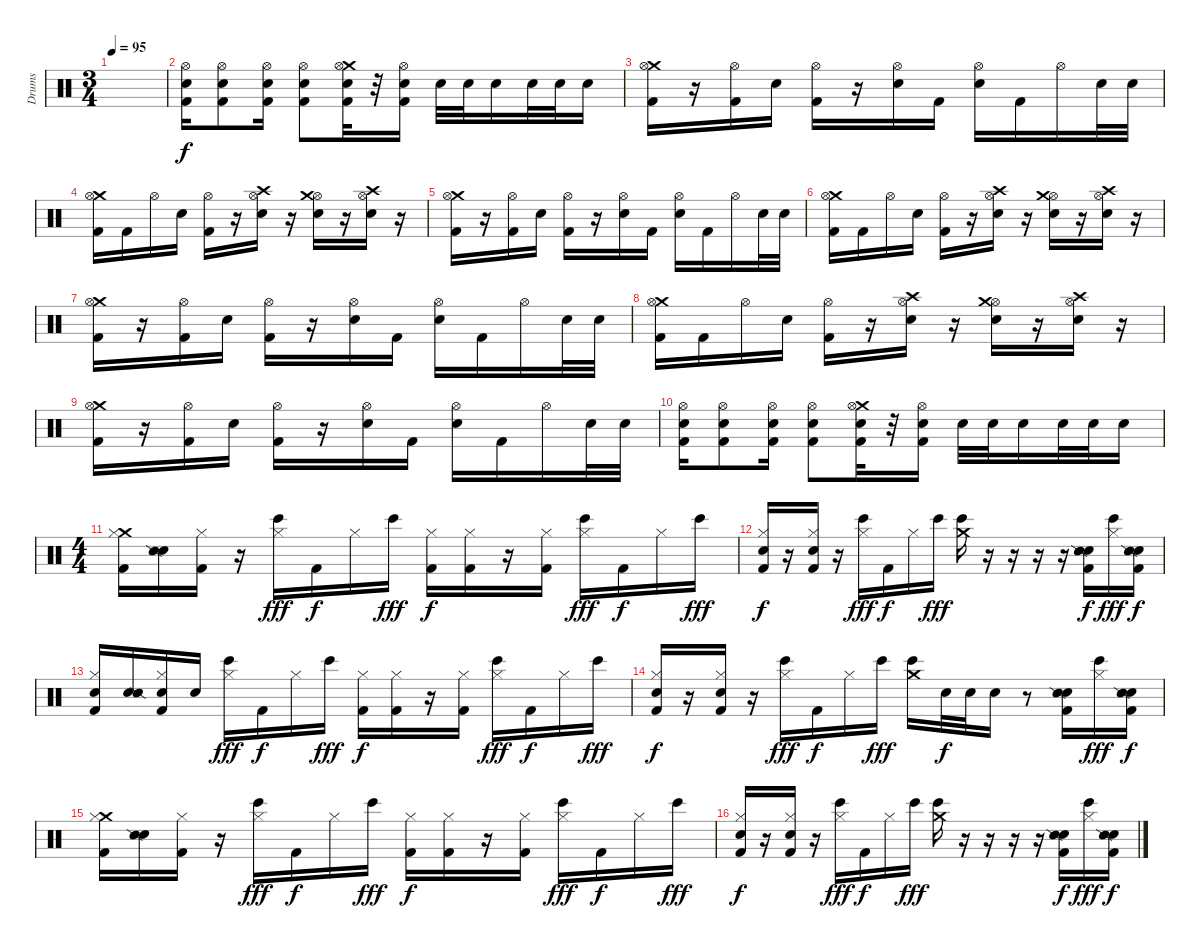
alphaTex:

\track ("Drums" "Drums") {instrument percussion}
\staff {score}
\articulation defaults
\ts (3 4)
\tempo 95
\clef neutral
\ks c
|
("Hi-Hat (open)" "Electric Snare (hit)" "Kick (hit) 2").16 ("Hi-Hat (open)" "Electric Snare (hit)" "Kick (hit) 2").8 ("Hi-Hat (open)" "Electric Snare (hit)" "Kick (hit) 2").16 ("Hi-Hat (open)" "Electric Snare (hit)" "Kick (hit) 2").8 ("Crash medium (hit)" "Hi-Hat (open)" "Electric Snare (hit)" "Kick (hit) 2").32 r.32 ("Hi-Hat (open)" "Electric Snare (hit)" "Kick (hit) 2").16 "Electric Snare (hit)".32 "Electric Snare (hit)".32 "Electric Snare (hit)".16 "Electric Snare (hit)".32 "Electric Snare (hit)".32 "Electric Snare (hit)".16 |
("Crash medium (hit)" "Hi-Hat (open)" "Kick (hit) 2").16 r.16 ("Hi-Hat (open)" "Kick (hit) 2").16 "Electric Snare (hit)".16 ("Hi-Hat (open)" "Kick (hit) 2").16 r.16 ("Hi-Hat (open)" "Electric Snare (hit)").16 "Kick (hit) 2".16 ("Hi-Hat (open)" "Electric Snare (hit)").16 "Kick (hit) 2".16 "Hi-Hat (open)".16 "Electric Snare (hit)".32 "Electric Snare (hit)".32 |
("Crash medium (hit)" "Hi-Hat (open)" "Kick (hit) 2").16 "Kick (hit) 2".16 "Hi-Hat (open)".16 "Electric Snare (hit)".16 ("Hi-Hat (open)" "Kick (hit) 2").16 r.16 ("Hi-Hat (open)" "Electric Snare (hit)" "Crash high (hit)").16 r.16 ("Hi-Hat (open)" "Electric Snare (hit)" "Crash medium (hit)").16 r.16 ("Hi-Hat (open)" "Electric Snare (hit)" "Crash high (hit)").16 r.16 |
("Crash medium (hit)" "Hi-Hat (open)" "Kick (hit) 2").16 r.16 ("Hi-Hat (open)" "Kick (hit) 2").16 "Electric Snare (hit)".16 ("Hi-Hat (open)" "Kick (hit) 2").16 r.16 ("Hi-Hat (open)" "Electric Snare (hit)").16 "Kick (hit) 2".16 ("Hi-Hat (open)" "Electric Snare (hit)").16 "Kick (hit) 2".16 "Hi-Hat (open)".16 "Electric Snare (hit)".32 "Electric Snare (hit)".32 |
("Crash medium (hit)" "Hi-Hat (open)" "Kick (hit) 2").16 "Kick (hit) 2".16 "Hi-Hat (open)".16 "Electric Snare (hit)".16 ("Hi-Hat (open)" "Kick (hit) 2").16 r.16 ("Hi-Hat (open)" "Electric Snare (hit)" "Crash high (hit)").16 r.16 ("Hi-Hat (open)" "Electric Snare (hit)" "Crash medium (hit)").16 r.16 ("Hi-Hat (open)" "Electric Snare (hit)" "Crash high (hit)").16 r.16 |
("Crash medium (hit)" "Hi-Hat (open)" "Kick (hit) 2").16 r.16 ("Hi-Hat (open)" "Kick (hit) 2").16 "Electric Snare (hit)".16 ("Hi-Hat (open)" "Kick (hit) 2").16 r.16 ("Hi-Hat (open)" "Electric Snare (hit)").16 "Kick (hit) 2".16 ("Hi-Hat (open)" "Electric Snare (hit)").16 "Kick (hit) 2".16 "Hi-Hat (open)".16 "Electric Snare (hit)".32 "Electric Snare (hit)".32 |
("Crash medium (hit)" "Hi-Hat (open)" "Kick (hit) 2").16 "Kick (hit) 2".16 "Hi-Hat (open)".16 "Electric Snare (hit)".16 ("Hi-Hat (open)" "Kick (hit) 2").16 r.16 ("Hi-Hat (open)" "Electric Snare (hit)" "Crash high (hit)").16 r.16 ("Hi-Hat (open)" "Electric Snare (hit)" "Crash medium (hit)").16 r.16 ("Hi-Hat (open)" "Electric Snare (hit)" "Crash high (hit)").16 r.16 |
("Crash medium (hit)" "Hi-Hat (open)" "Kick (hit) 2").16 r.16 ("Hi-Hat (open)" "Kick (hit) 2").16 "Electric Snare (hit)".16 ("Hi-Hat (open)" "Kick (hit) 2").16 r.16 ("Hi-Hat (open)" "Electric Snare (hit)").16 "Kick (hit) 2".16 ("Hi-Hat (open)" "Electric Snare (hit)").16 "Kick (hit) 2".16 "Hi-Hat (open)".16 "Electric Snare (hit)".32 "Electric Snare (hit)".32 |
("Hi-Hat (open)" "Electric Snare (hit)" "Kick (hit) 2").16 ("Hi-Hat (open)" "Electric Snare (hit)" "Kick (hit) 2").8 ("Hi-Hat (open)" "Electric Snare (hit)" "Kick (hit) 2").16 ("Hi-Hat (open)" "Electric Snare (hit)" "Kick (hit) 2").8 ("Crash medium (hit)" "Hi-Hat (open)" "Electric Snare (hit)" "Kick (hit) 2").32 r.32 ("Hi-Hat (open)" "Electric Snare (hit)" "Kick (hit) 2").16 "Electric Snare (hit)".32 "Electric Snare (hit)".32 "Electric Snare (hit)".16 "Electric Snare (hit)".32 "Electric Snare (hit)".32 "Electric Snare (hit)".16 |
\ts (4 4)
("Crash medium (hit)" "Hi-Hat (closed)" "Kick (hit) 2").16 ("Metronome (bell)" "Snare (side stick) 2").16 ("Hi-Hat (closed)" "Kick (hit) 2").16 r.16 ("Hi-Hat (closed)" "Bongo High (hit)").16{dy fff} "Kick (hit) 2".16{dy f} "Hi-Hat (closed)".16 "Bongo High (hit)".16{dy fff} ("Hi-Hat (closed)" "Kick (hit) 2").16{dy f} ("Hi-Hat (closed)" "Kick (hit) 2").16 r.16 ("Hi-Hat (closed)" "Kick (hit) 2").16 ("Hi-Hat (closed)" "Bongo High (hit)").16{dy fff} "Kick (hit) 2".16{dy f} "Hi-Hat (closed)".16 "Bongo High (hit)".16{dy fff} |
("Metronome (bell)" "Hi-Hat (closed)" "Kick (hit) 2").16{dy f} r.16 ("Metronome (bell)" "Hi-Hat (closed)" "Kick (hit) 2").16 r.16 ("Hi-Hat (closed)" "Bongo High (hit)").16{dy fff} "Kick (hit) 2".16{dy f} "Hi-Hat (closed)".16 "Bongo High (hit)".16{dy fff} ("Crash medium (hit)" "Bongo High (hit)").16 r.16 r.16 r.16 r.16 ("Metronome (bell)" "Snare (side stick) 2" "Kick (hit) 2").16{dy f} ("Hi-Hat (closed)" "Bongo High (hit)").16{dy fff} ("Metronome (bell)" "Snare (side stick) 2" "Kick (hit) 2").16{dy f} |
("Metronome (bell)" "Hi-Hat (closed)" "Kick (hit) 2").16 ("Metronome (bell)" "Snare (side stick) 2").16 ("Metronome (bell)" "Hi-Hat (closed)" "Kick (hit) 2").16 "Metronome (bell)".16 ("Hi-Hat (closed)" "Bongo High (hit)").16{dy fff} "Kick (hit) 2".16{dy f} "Hi-Hat (closed)".16 "Bongo High (hit)".16{dy fff} ("Hi-Hat (closed)" "Kick (hit) 2").16{dy f} ("Hi-Hat (closed)" "Kick (hit) 2").16 r.16 ("Hi-Hat (closed)" "Kick (hit) 2").16 ("Hi-Hat (closed)" "Bongo High (hit)").16{dy fff} "Kick (hit) 2".16{dy f} "Hi-Hat (closed)".16 "Bongo High (hit)".16{dy fff} |
("Metronome (bell)" "Hi-Hat (closed)" "Kick (hit) 2").16{dy f} r.16 ("Metronome (bell)" "Hi-Hat (closed)" "Kick (hit) 2").16 r.16 ("Hi-Hat (closed)" "Bongo High (hit)").16{dy fff} "Kick (hit) 2".16{dy f} "Hi-Hat (closed)".16 "Bongo High (hit)".16{dy fff} ("Crash medium (hit)" "Bongo High (hit)").16 "Metronome (bell)".32{dy f} "Metronome (bell)".32 "Metronome (bell)".16 r.8 ("Metronome (bell)" "Snare (side stick) 2" "Kick (hit) 2").16 ("Hi-Hat (closed)" "Bongo High (hit)").16{dy fff} ("Metronome (bell)" "Snare (side stick) 2" "Kick (hit) 2").16{dy f} |
("Crash medium (hit)" "Hi-Hat (closed)" "Kick (hit) 2").16 ("Metronome (bell)" "Snare (side stick) 2").16 ("Hi-Hat (closed)" "Kick (hit) 2").16 r.16 ("Hi-Hat (closed)" "Bongo High (hit)").16{dy fff} "Kick (hit) 2".16{dy f} "Hi-Hat (closed)".16 "Bongo High (hit)".16{dy fff} ("Hi-Hat (closed)" "Kick (hit) 2").16{dy f} ("Hi-Hat (closed)" "Kick (hit) 2").16 r.16 ("Hi-Hat (closed)" "Kick (hit) 2").16 ("Hi-Hat (closed)" "Bongo High (hit)").16{dy fff} "Kick (hit) 2".16{dy f} "Hi-Hat (closed)".16 "Bongo High (hit)".16{dy fff} |
("Metronome (bell)" "Hi-Hat (closed)" "Kick (hit) 2").16{dy f} r.16 ("Metronome (bell)" "Hi-Hat (closed)" "Kick (hit) 2").16 r.16 ("Hi-Hat (closed)" "Bongo High (hit)").16{dy fff} "Kick (hit) 2".16{dy f} "Hi-Hat (closed)".16 "Bongo High (hit)".16{dy fff} ("Crash medium (hit)" "Bongo High (hit)").16 r.16 r.16 r.16 r.16 ("Metronome (bell)" "Snare (side stick) 2" "Kick (hit) 2").16{dy f} ("Hi-Hat (closed)" "Bongo High (hit)").16{dy fff} ("Metronome (bell)" "Snare (side stick) 2" "Kick (hit) 2").16{dy f}
